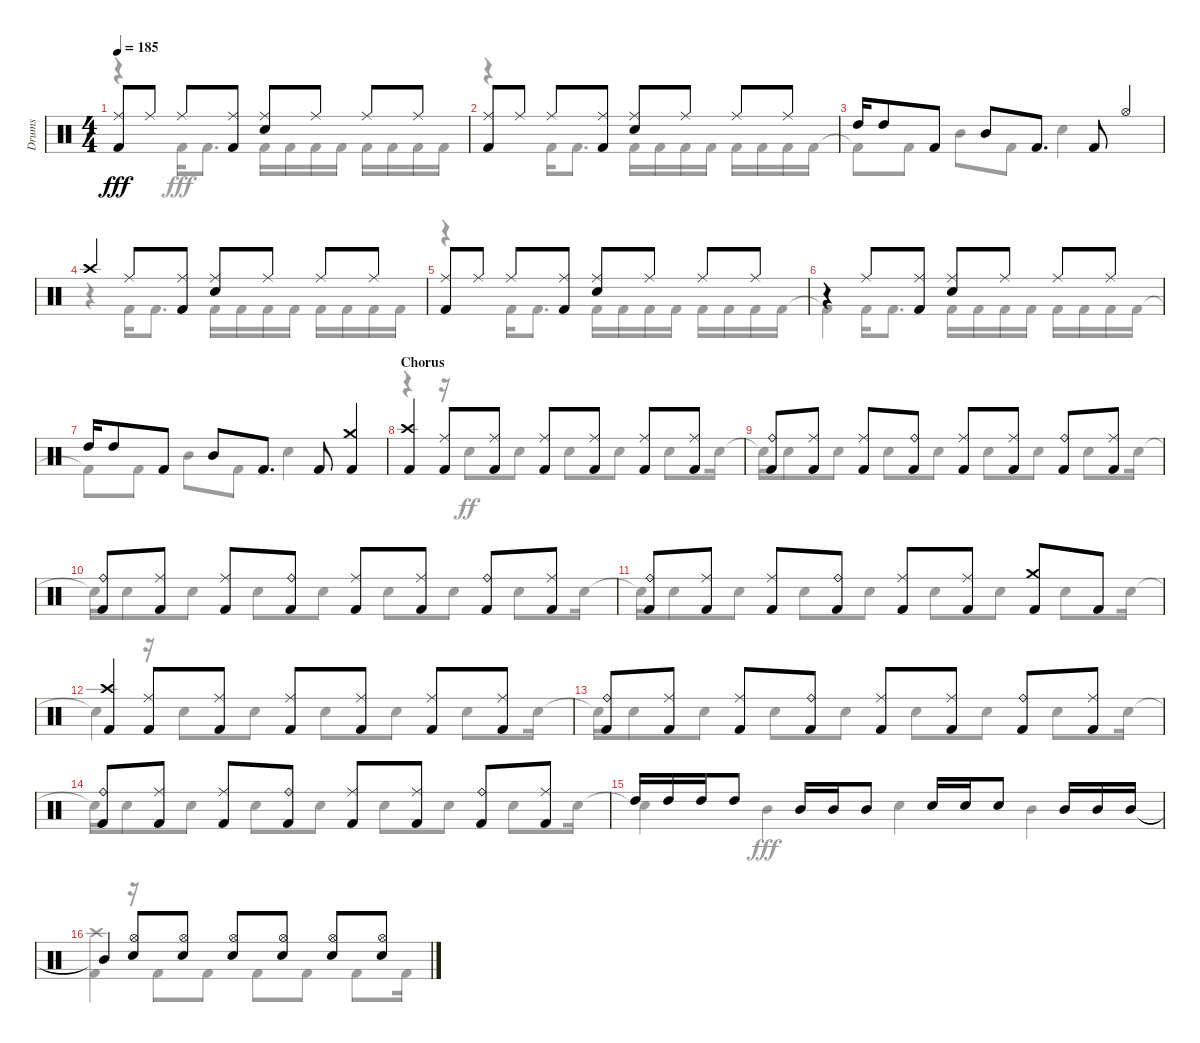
\track ("Drums" "Drums") {instrument percussion}
\staff {score}
\articulation defaults
\voice
\ts (4 4)
\tempo 185
\clef neutral
\ks aminor
("Ride (middle)" "Kick (hit) 2").8{dy fff} "Ride (middle)".8 "Ride (middle)".8 ("Ride (middle)" "Kick (hit) 2").8 ("Ride (middle)" "Snare (hit) 2").8 "Ride (middle)".8 "Ride (middle)".8 "Ride (middle)".8 |
("Ride (middle)" "Kick (hit) 2").8 "Ride (middle)".8 "Ride (middle)".8 ("Kick (hit) 2" "Ride (middle)").8 ("Snare (hit) 2" "Ride (middle)").8 "Ride (middle)".8 "Ride (middle)".8 "Ride (middle)".8 |
"High Tom (hit)".16 "High Tom (hit)".8 "Kick (hit) 2".8 "Mid Tom (hit)".8 "Kick (hit) 2".8{d} "Kick (hit) 2".8 "Hi-Hat (open)".4 |
"Crash high (hit)".4 "Ride (middle)".8 ("Ride (middle)" "Kick (hit) 2").8 ("Snare (hit) 2" "Ride (middle)").8 "Ride (middle)".8 "Ride (middle)".8 "Ride (middle)".8 |
("Kick (hit) 2" "Ride (middle)").8 "Ride (middle)".8 "Ride (middle)".8 ("Kick (hit) 2" "Ride (middle)").8 ("Ride (middle)" "Snare (hit) 2").8 "Ride (middle)".8 "Ride (middle)".8 "Ride (middle)".8 |
r.4 "Ride (middle)".8 ("Kick (hit) 2" "Ride (middle)").8 ("Snare (hit) 2" "Ride (middle)").8 "Ride (middle)".8 "Ride (middle)".8 "Ride (middle)".8 |
"High Tom (hit)".16 "High Tom (hit)".8 "Kick (hit) 2".8 "Mid Tom (hit)".8 "Kick (hit) 2".8{d} "Kick (hit) 2".8 ("Kick (hit) 2" "Crash medium (hit)").4 |
\section ("" "Chorus")
("Kick (hit) 2" "Crash high (hit)").4 ("Kick (hit) 2" "Ride (middle)").8 ("Ride (middle)" "Kick (hit) 2").8 ("Kick (hit) 2" "Ride (middle)").8 ("Ride (middle)" "Kick (hit) 2").8 ("Kick (hit) 2" "Ride (middle)").8 ("Kick (hit) 2" "Ride (middle)").8 |
("Kick (hit) 2" "Ride (bell)").8 ("Ride (middle)" "Kick (hit) 2").8 ("Kick (hit) 2" "Ride (middle)").8 ("Kick (hit) 2" "Ride (bell)").8 ("Kick (hit) 2" "Ride (middle)").8 ("Ride (middle)" "Kick (hit) 2").8 ("Kick (hit) 2" "Ride (bell)").8 ("Ride (middle)" "Kick (hit) 2").8 |
("Kick (hit) 2" "Ride (bell)").8 ("Ride (middle)" "Kick (hit) 2").8 ("Ride (middle)" "Kick (hit) 2").8 ("Kick (hit) 2" "Ride (bell)").8 ("Kick (hit) 2" "Ride (middle)").8 ("Ride (middle)" "Kick (hit) 2").8 ("Ride (bell)" "Kick (hit) 2").8 ("Ride (middle)" "Kick (hit) 2").8 |
("Ride (bell)" "Kick (hit) 2").8 ("Kick (hit) 2" "Ride (middle)").8 ("Kick (hit) 2" "Ride (middle)").8 ("Ride (bell)" "Kick (hit) 2").8 ("Kick (hit) 2" "Ride (middle)").8 ("Ride (middle)" "Kick (hit) 2").8 ("Kick (hit) 2" "Crash medium (hit)").8 "Kick (hit) 2".8 |
("Kick (hit) 2" "Crash high (hit)").4 ("Ride (middle)" "Kick (hit) 2").8 ("Kick (hit) 2" "Ride (middle)").8 ("Kick (hit) 2" "Ride (middle)").8 ("Kick (hit) 2" "Ride (middle)").8 ("Kick (hit) 2" "Ride (middle)").8 ("Ride (middle)" "Kick (hit) 2").8 |
("Ride (bell)" "Kick (hit) 2").8 ("Kick (hit) 2" "Ride (middle)").8 ("Ride (middle)" "Kick (hit) 2").8 ("Kick (hit) 2" "Ride (bell)").8 ("Kick (hit) 2" "Ride (middle)").8 ("Kick (hit) 2" "Ride (middle)").8 ("Kick (hit) 2" "Ride (bell)").8 ("Ride (middle)" "Kick (hit) 2").8 |
("Ride (bell)" "Kick (hit) 2").8 ("Kick (hit) 2" "Ride (middle)").8 ("Ride (middle)" "Kick (hit) 2").8 ("Ride (bell)" "Kick (hit) 2").8 ("Kick (hit) 2" "Ride (middle)").8 ("Kick (hit) 2" "Ride (middle)").8 ("Kick (hit) 2" "Ride (bell)").8 ("Ride (middle)" "Kick (hit) 2").8 |
"High Tom (hit)".16 "High Tom (hit)".16 "High Tom (hit)".16 "High Tom (hit)".8 "Mid Tom (hit)".16 "Mid Tom (hit)".16 "Mid Tom (hit)".8 "Snare (hit) 2".16 "Snare (hit) 2".16 "Snare (hit) 2".8 "Mid Tom (hit)".16 "Mid Tom (hit)".16 "Mid Tom (hit)".16 |
"Mid Tom (hit)"{t}.4 ("Snare (hit) 2" "Hi-Hat (open)").8 ("Hi-Hat (open)" "Snare (hit) 2").8 ("Snare (hit) 2" "Hi-Hat (open)").8 ("Snare (hit) 2" "Hi-Hat (open)").8 ("Snare (hit) 2" "Hi-Hat (open)").8 ("Hi-Hat (open)" "Snare (hit) 2").8
\voice
\clef neutral
\ottava regular
\simile none
\ks aminor
r.4{dy fff} "Kick (hit) 2".16 "Kick (hit) 2".8{d} "Kick (hit) 2".16 "Kick (hit) 2".16 "Kick (hit) 2".16 "Kick (hit) 2".16 "Kick (hit) 2".16 "Kick (hit) 2".16 "Kick (hit) 2".16 "Kick (hit) 2".16 |
r.4 "Kick (hit) 2".16 "Kick (hit) 2".8{d} "Kick (hit) 2".16 "Kick (hit) 2".16 "Kick (hit) 2".16 "Kick (hit) 2".16 "Kick (hit) 2".16 "Kick (hit) 2".16 "Kick (hit) 2".16 "Kick (hit) 2".16 |
"Kick (hit) 2"{t}.8 "Kick (hit) 2".8 "Mid Tom (hit)".8 "Kick (hit) 2".8 "Snare (hit) 2".4 |
r.4 "Kick (hit) 2".16 "Kick (hit) 2".8{d} "Kick (hit) 2".16 "Kick (hit) 2".16 "Kick (hit) 2".16 "Kick (hit) 2".16 "Kick (hit) 2".16 "Kick (hit) 2".16 "Kick (hit) 2".16 "Kick (hit) 2".16 |
r.4 "Kick (hit) 2".16 "Kick (hit) 2".8{d} "Kick (hit) 2".16 "Kick (hit) 2".16 "Kick (hit) 2".16 "Kick (hit) 2".16 "Kick (hit) 2".16 "Kick (hit) 2".16 "Kick (hit) 2".16 "Kick (hit) 2".16 |
"Kick (hit) 2"{t}.4 "Kick (hit) 2".16 "Kick (hit) 2".8{d} "Kick (hit) 2".16 "Kick (hit) 2".16 "Kick (hit) 2".16 "Kick (hit) 2".16 "Kick (hit) 2".16 "Kick (hit) 2".16 "Kick (hit) 2".16 "Kick (hit) 2".16 |
"Kick (hit) 2"{t}.8 "Kick (hit) 2".8 "Mid Tom (hit)".8 "Kick (hit) 2".8 "Snare (hit) 2".4 |
r.4 r.16 "Snare (hit) 2".8{dy ff} "Snare (hit) 2".8 "Snare (hit) 2".8 "Snare (hit) 2".8 "Snare (hit) 2".8 "Snare (hit) 2".16 |
"Snare (hit) 2"{t}.16 "Snare (hit) 2".8 "Snare (hit) 2".8 "Snare (hit) 2".8 "Snare (hit) 2".8 "Snare (hit) 2".8 "Snare (hit) 2".8 "Snare (hit) 2".8 "Snare (hit) 2".16 |
"Snare (hit) 2"{t}.16 "Snare (hit) 2".8 "Snare (hit) 2".8 "Snare (hit) 2".8 "Snare (hit) 2".8 "Snare (hit) 2".8 "Snare (hit) 2".8 "Snare (hit) 2".8 "Snare (hit) 2".16 |
"Snare (hit) 2"{t}.16 "Snare (hit) 2".8 "Snare (hit) 2".8 "Snare (hit) 2".8 "Snare (hit) 2".8 "Snare (hit) 2".8 "Snare (hit) 2".8 "Snare (hit) 2".8 "Snare (hit) 2".16 |
"Snare (hit) 2"{t}.4 r.16 "Snare (hit) 2".8 "Snare (hit) 2".8 "Snare (hit) 2".8 "Snare (hit) 2".8 "Snare (hit) 2".8 "Snare (hit) 2".16 |
"Snare (hit) 2"{t}.16 "Snare (hit) 2".8 "Snare (hit) 2".8 "Snare (hit) 2".8 "Snare (hit) 2".8 "Snare (hit) 2".8 "Snare (hit) 2".8 "Snare (hit) 2".8 "Snare (hit) 2".16 |
"Snare (hit) 2"{t}.16 "Snare (hit) 2".8 "Snare (hit) 2".8 "Snare (hit) 2".8 "Snare (hit) 2".8 "Snare (hit) 2".8 "Snare (hit) 2".8 "Snare (hit) 2".8 "Snare (hit) 2".16 |
"Snare (hit) 2"{t}.4 "Mid Tom (hit)".4{dy fff} "Snare (hit) 2".4 "Mid Tom (hit)".4 |
("Crash high (hit)" "Kick (hit) 2").4 r.16 "Kick (hit) 2".8 "Kick (hit) 2".8 "Kick (hit) 2".8 "Kick (hit) 2".8 "Kick (hit) 2".8 "Kick (hit) 2".16
